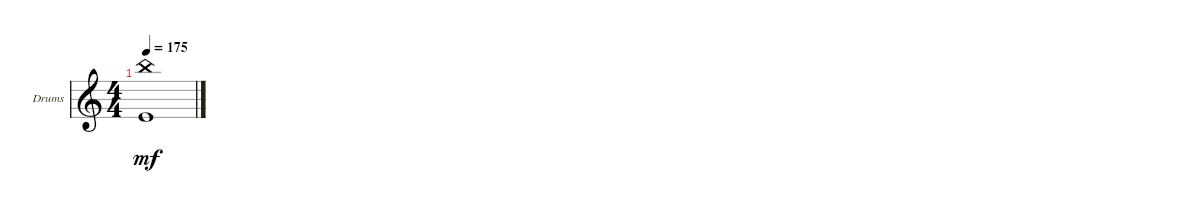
\defaultSystemsLayout 4
\bracketExtendMode groupsimilarinstruments
\firstSystemTrackNameOrientation horizontal
\otherSystemsTrackNameOrientation horizontal
\track ("Drumkit" "Drums") {instrument percussion}
\staff {score}
\articulation defaults
\ts (4 4)
\tempo 175
\clef g2
\ks c
("China (hit)" "Kick (hit)").1{dy mf}
